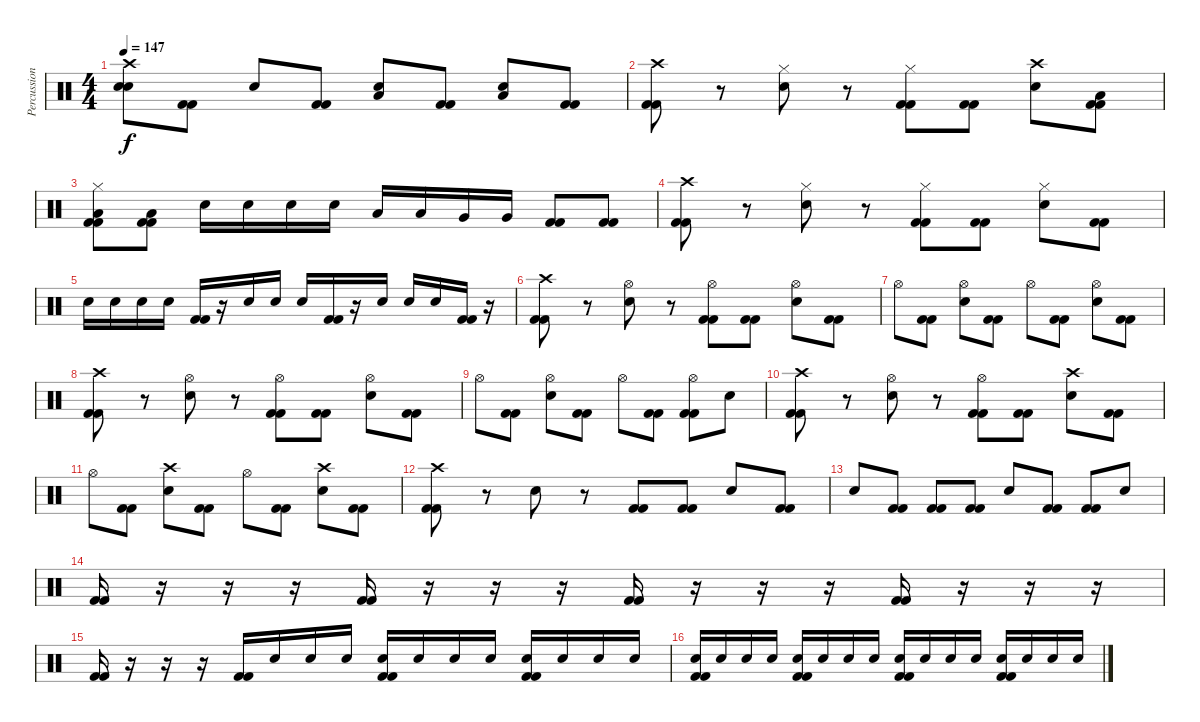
\track ("Percussions" "Percussion") {instrument percussion}
\staff {score}
\articulation defaults
\ts (4 4)
\tempo 147
\clef neutral
\ks c
("Crash high (hit)" "Snare (hit)"{t} "Snare (hit)"{t}).8{dy f} ("Kick (hit) 2" "Kick (hit) 2").8 "Snare (hit) 2".8 ("Kick (hit) 2" "Kick (hit) 2").8 ("Low Tom (hit)" "Snare (hit) 2").8 ("Kick (hit) 2" "Kick (hit) 2").8 ("Low Tom (hit)" "Snare (hit) 2").8 ("Kick (hit) 2" "Kick (hit) 2").8 |
("Crash high (hit)" "Kick (hit) 2" "Kick (hit) 2").8 r.8 ("Hi-Hat (closed)" "Snare (hit) 2").8 r.8 ("Hi-Hat (closed)" "Kick (hit) 2" "Kick (hit) 2").8 ("Kick (hit) 2" "Kick (hit) 2").8 ("Crash high (hit)" "Snare (hit) 2").8 ("Low Tom (hit)" "Kick (hit) 2" "Kick (hit) 2").8 |
("Hi-Hat (closed)" "Low Tom (hit)" "Kick (hit) 2" "Kick (hit) 2").8 ("Low Tom (hit)" "Kick (hit) 2" "Kick (hit) 2").8 "Snare (hit) 2".16 "Snare (hit) 2".16 "Snare (hit) 2".16 "Snare (hit) 2".16 "Low Tom (hit)".16 "Low Tom (hit)".16 "Very Low Tom (hit)".16 "Very Low Tom (hit)".16 ("Kick (hit) 2" "Kick (hit) 2").8 ("Kick (hit) 2" "Kick (hit) 2").8 |
("Crash high (hit)" "Kick (hit) 2" "Kick (hit) 2").8 r.8 ("Hi-Hat (closed)" "Snare (hit) 2").8 r.8 ("Hi-Hat (closed)" "Kick (hit) 2" "Kick (hit) 2").8 ("Kick (hit) 2" "Kick (hit) 2").8 ("Hi-Hat (closed)" "Snare (hit) 2").8 ("Kick (hit) 2" "Kick (hit) 2").8 |
"Snare (hit) 2".16 "Snare (hit) 2".16 "Snare (hit) 2".16 "Snare (hit) 2".16 ("Kick (hit) 2" "Kick (hit) 2").16 r.16 "Snare (hit) 2".16 "Snare (hit) 2".16 "Snare (hit) 2".16 ("Kick (hit) 2" "Kick (hit) 2").16 r.16 "Snare (hit) 2".16 "Snare (hit) 2".16 "Snare (hit) 2".16 ("Kick (hit) 2" "Kick (hit) 2").16 r.16 |
("Crash high (hit)" "Kick (hit) 2" "Kick (hit) 2").8 r.8 ("Hi-Hat (open)" "Snare (hit) 2").8 r.8 ("Hi-Hat (open)" "Kick (hit) 2" "Kick (hit) 2").8 ("Kick (hit) 2" "Kick (hit) 2").8 ("Hi-Hat (open)" "Snare (hit) 2").8 ("Kick (hit) 2" "Kick (hit) 2").8 |
"Hi-Hat (open)".8 ("Kick (hit) 2" "Kick (hit) 2").8 ("Hi-Hat (open)" "Snare (hit) 2").8 ("Kick (hit) 2" "Kick (hit) 2").8 "Hi-Hat (open)".8 ("Kick (hit) 2" "Kick (hit) 2").8 ("Hi-Hat (open)" "Snare (hit) 2").8 ("Kick (hit) 2" "Kick (hit) 2").8 |
("Crash high (hit)" "Kick (hit) 2" "Kick (hit) 2").8 r.8 ("Hi-Hat (open)" "Snare (hit) 2").8 r.8 ("Hi-Hat (open)" "Kick (hit) 2" "Kick (hit) 2").8 ("Kick (hit) 2" "Kick (hit) 2").8 ("Hi-Hat (open)" "Snare (hit) 2").8 ("Kick (hit) 2" "Kick (hit) 2").8 |
"Hi-Hat (open)".8 ("Kick (hit) 2" "Kick (hit) 2").8 ("Hi-Hat (open)" "Snare (hit) 2").8 ("Kick (hit) 2" "Kick (hit) 2").8 "Hi-Hat (open)".8 ("Kick (hit) 2" "Kick (hit) 2").8 ("Hi-Hat (open)" "Kick (hit) 2" "Kick (hit) 2").8 "Snare (hit) 2".8 |
("Crash high (hit)" "Kick (hit) 2" "Kick (hit) 2").8 r.8 ("Hi-Hat (open)" "Snare (hit) 2").8 r.8 ("Hi-Hat (open)" "Kick (hit) 2" "Kick (hit) 2").8 ("Kick (hit) 2" "Kick (hit) 2").8 ("Crash high (hit)" "Snare (hit) 2").8 ("Kick (hit) 2" "Kick (hit) 2").8 |
"Hi-Hat (open)".8 ("Kick (hit) 2" "Kick (hit) 2").8 ("Crash high (hit)" "Snare (hit) 2").8 ("Kick (hit) 2" "Kick (hit) 2").8 "Hi-Hat (open)".8 ("Kick (hit) 2" "Kick (hit) 2").8 ("Crash high (hit)" "Snare (hit) 2").8 ("Kick (hit) 2" "Kick (hit) 2").8 |
("Crash high (hit)" "Kick (hit) 2" "Kick (hit) 2").8 r.8 "Snare (hit) 2".8 r.8 ("Kick (hit) 2" "Kick (hit) 2").8 ("Kick (hit) 2" "Kick (hit) 2").8 "Snare (hit) 2".8 ("Kick (hit) 2" "Kick (hit) 2").8 |
"Snare (hit) 2".8 ("Kick (hit) 2" "Kick (hit) 2").8 ("Kick (hit) 2" "Kick (hit) 2").8 ("Kick (hit) 2" "Kick (hit) 2").8 "Snare (hit) 2".8 ("Kick (hit) 2" "Kick (hit) 2").8 ("Kick (hit) 2" "Kick (hit) 2").8 "Snare (hit) 2".8 |
("Kick (hit) 2" "Kick (hit) 2").16 r.16 r.16 r.16 ("Kick (hit) 2" "Kick (hit) 2").16 r.16 r.16 r.16 ("Kick (hit) 2" "Kick (hit) 2").16 r.16 r.16 r.16 ("Kick (hit) 2" "Kick (hit) 2").16 r.16 r.16 r.16 |
("Kick (hit) 2" "Kick (hit) 2").16 r.16 r.16 r.16 ("Kick (hit) 2" "Kick (hit) 2").16{volume 8} "Snare (hit) 2".16{volume 16} "Snare (hit) 2".16 "Snare (hit) 2".16 ("Snare (hit) 2" "Kick (hit) 2" "Kick (hit) 2").16 "Snare (hit) 2".16 "Snare (hit) 2".16 "Snare (hit) 2".16 ("Snare (hit) 2" "Kick (hit) 2" "Kick (hit) 2").16 "Snare (hit) 2".16 "Snare (hit) 2".16 "Snare (hit) 2".16 |
("Snare (hit) 2" "Kick (hit) 2" "Kick (hit) 2").16 "Snare (hit) 2".16 "Snare (hit) 2".16 "Snare (hit) 2".16 ("Snare (hit) 2" "Kick (hit) 2" "Kick (hit) 2").16 "Snare (hit) 2".16 "Snare (hit) 2".16 "Snare (hit) 2".16 ("Snare (hit) 2" "Kick (hit) 2" "Kick (hit) 2").16 "Snare (hit) 2".16 "Snare (hit) 2".16 "Snare (hit) 2".16 ("Snare (hit) 2" "Kick (hit) 2" "Kick (hit) 2").16 "Snare (hit) 2".16 "Snare (hit) 2".16 "Snare (hit) 2".16
